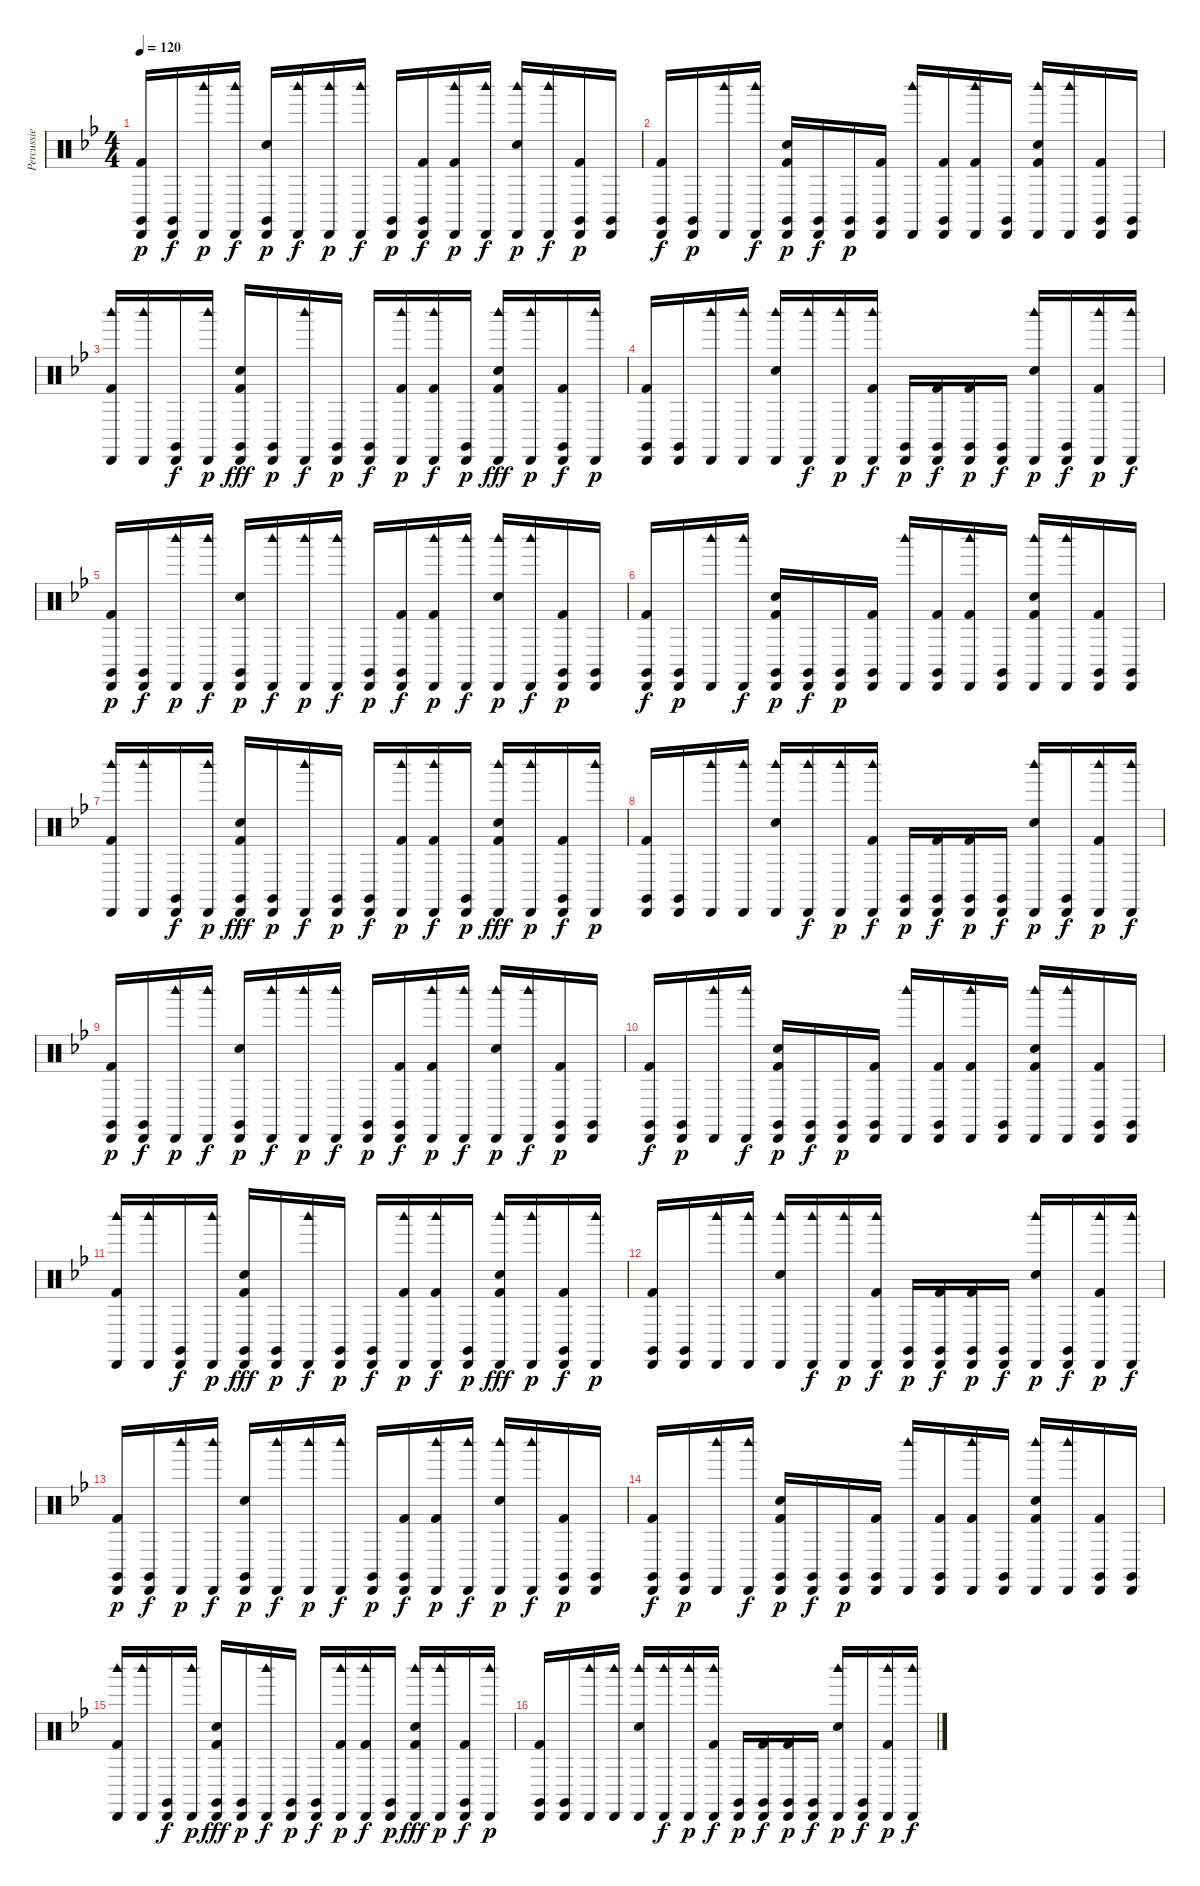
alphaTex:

\track ("Percussie" "Percussie") {instrument percussion}
\staff {score}
\articulation defaults
\ts (4 4)
\tempo 120
\clef neutral
\ks bb
("Cabasa (hit)" "Kick (hit) 2" "Claves (hit)").16{dy p} ("Cabasa (hit)" "Claves (hit)").16{dy f} ("Cabasa (hit)" "Woodblock high (hit)").16{dy p} ("Cabasa (hit)" "Woodblock high (hit)").16{dy f} ("Cabasa (hit)" "Snare (hit) 2" "Claves (hit)").16{dy p} ("Cabasa (hit)" "Woodblock high (hit)").16{dy f} ("Cabasa (hit)" "Woodblock high (hit)").16{dy p} ("Cabasa (hit)" "Woodblock high (hit)").16{dy f} ("Cabasa (hit)" "Claves (hit)").16{dy p} ("Cabasa (hit)" "Kick (hit) 2" "Claves (hit)").16{dy f} ("Cabasa (hit)" "Kick (hit) 2" "Woodblock high (hit)").16{dy p} ("Cabasa (hit)" "Woodblock high (hit)").16{dy f} ("Cabasa (hit)" "Snare (hit) 2" "Woodblock high (hit)").16{dy p} ("Cabasa (hit)" "Woodblock high (hit)").16{dy f} ("Cabasa (hit)" "Kick (hit) 2" "Claves (hit)").16{dy p} ("Cabasa (hit)" "Claves (hit)").16 |
("Cabasa (hit)" "Kick (hit) 2" "Claves (hit)").16{dy f} ("Cabasa (hit)" "Claves (hit)").16{dy p} ("Cabasa (hit)" "Woodblock high (hit)").16 ("Cabasa (hit)" "Woodblock high (hit)").16{dy f} ("Cabasa (hit)" "Kick (hit) 2" "Snare (hit) 2" "Claves (hit)").16{dy p} ("Cabasa (hit)" "Claves (hit)").16{dy f} ("Cabasa (hit)" "Claves (hit)").16{dy p} ("Cabasa (hit)" "Kick (hit) 2" "Claves (hit)").16 ("Cabasa (hit)" "Woodblock high (hit)").16 ("Cabasa (hit)" "Kick (hit) 2" "Claves (hit)").16 ("Cabasa (hit)" "Kick (hit) 2" "Woodblock high (hit)").16 ("Cabasa (hit)" "Claves (hit)").16 ("Cabasa (hit)" "Kick (hit) 2" "Snare (hit) 2" "Woodblock high (hit)").16 ("Cabasa (hit)" "Woodblock high (hit)").16 ("Cabasa (hit)" "Kick (hit) 2" "Claves (hit)").16 ("Cabasa (hit)" "Claves (hit)").16 |
("Cabasa (hit)" "Kick (hit) 2" "Woodblock high (hit)").16 ("Cabasa (hit)" "Woodblock high (hit)").16 ("Cabasa (hit)" "Claves (hit)").16{dy f} ("Cabasa (hit)" "Woodblock high (hit)").16{dy p} ("Cabasa (hit)" "Kick (hit) 2" "Snare (hit) 2" "Claves (hit)").16{dy fff} ("Cabasa (hit)" "Claves (hit)").16{dy p} ("Cabasa (hit)" "Woodblock high (hit)").16{dy f} ("Cabasa (hit)" "Claves (hit)").16{dy p} ("Cabasa (hit)" "Claves (hit)").16{dy f} ("Cabasa (hit)" "Kick (hit) 2" "Woodblock high (hit)").16{dy p} ("Cabasa (hit)" "Kick (hit) 2" "Woodblock high (hit)").16{dy f} ("Cabasa (hit)" "Claves (hit)").16{dy p} ("Cabasa (hit)" "Kick (hit) 2" "Snare (hit) 2" "Woodblock high (hit)").16{dy fff} ("Cabasa (hit)" "Woodblock high (hit)").16{dy p} ("Cabasa (hit)" "Kick (hit) 2" "Claves (hit)").16{dy f} ("Cabasa (hit)" "Woodblock high (hit)").16{dy p} |
("Cabasa (hit)" "Kick (hit) 2" "Claves (hit)").16 ("Cabasa (hit)" "Claves (hit)").16 ("Cabasa (hit)" "Woodblock high (hit)").16 ("Cabasa (hit)" "Woodblock high (hit)").16 ("Cabasa (hit)" "Snare (hit) 2" "Woodblock high (hit)").16 ("Cabasa (hit)" "Woodblock high (hit)").16{dy f} ("Cabasa (hit)" "Woodblock high (hit)").16{dy p} ("Cabasa (hit)" "Kick (hit) 2" "Woodblock high (hit)").16{dy f} ("Cabasa (hit)" "Claves (hit)").16{dy p} ("Cabasa (hit)" "Kick (hit) 2" "Claves (hit)").16{dy f} ("Cabasa (hit)" "Kick (hit) 2" "Claves (hit)").16{dy p} ("Cabasa (hit)" "Claves (hit)").16{dy f} ("Cabasa (hit)" "Snare (hit) 2" "Woodblock high (hit)").16{dy p} ("Cabasa (hit)" "Claves (hit)").16{dy f} ("Cabasa (hit)" "Kick (hit) 2" "Woodblock high (hit)").16{dy p} ("Cabasa (hit)" "Woodblock high (hit)").16{dy f} |
("Cabasa (hit)" "Kick (hit) 2" "Claves (hit)").16{dy p} ("Cabasa (hit)" "Claves (hit)").16{dy f} ("Cabasa (hit)" "Woodblock high (hit)").16{dy p} ("Cabasa (hit)" "Woodblock high (hit)").16{dy f} ("Cabasa (hit)" "Snare (hit) 2" "Claves (hit)").16{dy p} ("Cabasa (hit)" "Woodblock high (hit)").16{dy f} ("Cabasa (hit)" "Woodblock high (hit)").16{dy p} ("Cabasa (hit)" "Woodblock high (hit)").16{dy f} ("Cabasa (hit)" "Claves (hit)").16{dy p} ("Cabasa (hit)" "Kick (hit) 2" "Claves (hit)").16{dy f} ("Cabasa (hit)" "Kick (hit) 2" "Woodblock high (hit)").16{dy p} ("Cabasa (hit)" "Woodblock high (hit)").16{dy f} ("Cabasa (hit)" "Snare (hit) 2" "Woodblock high (hit)").16{dy p} ("Cabasa (hit)" "Woodblock high (hit)").16{dy f} ("Cabasa (hit)" "Kick (hit) 2" "Claves (hit)").16{dy p} ("Cabasa (hit)" "Claves (hit)").16 |
("Cabasa (hit)" "Kick (hit) 2" "Claves (hit)").16{dy f} ("Cabasa (hit)" "Claves (hit)").16{dy p} ("Cabasa (hit)" "Woodblock high (hit)").16 ("Cabasa (hit)" "Woodblock high (hit)").16{dy f} ("Cabasa (hit)" "Kick (hit) 2" "Snare (hit) 2" "Claves (hit)").16{dy p} ("Cabasa (hit)" "Claves (hit)").16{dy f} ("Cabasa (hit)" "Claves (hit)").16{dy p} ("Cabasa (hit)" "Kick (hit) 2" "Claves (hit)").16 ("Cabasa (hit)" "Woodblock high (hit)").16 ("Cabasa (hit)" "Kick (hit) 2" "Claves (hit)").16 ("Cabasa (hit)" "Kick (hit) 2" "Woodblock high (hit)").16 ("Cabasa (hit)" "Claves (hit)").16 ("Cabasa (hit)" "Kick (hit) 2" "Snare (hit) 2" "Woodblock high (hit)").16 ("Cabasa (hit)" "Woodblock high (hit)").16 ("Cabasa (hit)" "Kick (hit) 2" "Claves (hit)").16 ("Cabasa (hit)" "Claves (hit)").16 |
("Cabasa (hit)" "Kick (hit) 2" "Woodblock high (hit)").16 ("Cabasa (hit)" "Woodblock high (hit)").16 ("Cabasa (hit)" "Claves (hit)").16{dy f} ("Cabasa (hit)" "Woodblock high (hit)").16{dy p} ("Cabasa (hit)" "Kick (hit) 2" "Snare (hit) 2" "Claves (hit)").16{dy fff} ("Cabasa (hit)" "Claves (hit)").16{dy p} ("Cabasa (hit)" "Woodblock high (hit)").16{dy f} ("Cabasa (hit)" "Claves (hit)").16{dy p} ("Cabasa (hit)" "Claves (hit)").16{dy f} ("Cabasa (hit)" "Kick (hit) 2" "Woodblock high (hit)").16{dy p} ("Cabasa (hit)" "Kick (hit) 2" "Woodblock high (hit)").16{dy f} ("Cabasa (hit)" "Claves (hit)").16{dy p} ("Cabasa (hit)" "Kick (hit) 2" "Snare (hit) 2" "Woodblock high (hit)").16{dy fff} ("Cabasa (hit)" "Woodblock high (hit)").16{dy p} ("Cabasa (hit)" "Kick (hit) 2" "Claves (hit)").16{dy f} ("Cabasa (hit)" "Woodblock high (hit)").16{dy p} |
("Cabasa (hit)" "Kick (hit) 2" "Claves (hit)").16 ("Cabasa (hit)" "Claves (hit)").16 ("Cabasa (hit)" "Woodblock high (hit)").16 ("Cabasa (hit)" "Woodblock high (hit)").16 ("Cabasa (hit)" "Snare (hit) 2" "Woodblock high (hit)").16 ("Cabasa (hit)" "Woodblock high (hit)").16{dy f} ("Cabasa (hit)" "Woodblock high (hit)").16{dy p} ("Cabasa (hit)" "Kick (hit) 2" "Woodblock high (hit)").16{dy f} ("Cabasa (hit)" "Claves (hit)").16{dy p} ("Cabasa (hit)" "Kick (hit) 2" "Claves (hit)").16{dy f} ("Cabasa (hit)" "Kick (hit) 2" "Claves (hit)").16{dy p} ("Cabasa (hit)" "Claves (hit)").16{dy f} ("Cabasa (hit)" "Snare (hit) 2" "Woodblock high (hit)").16{dy p} ("Cabasa (hit)" "Claves (hit)").16{dy f} ("Cabasa (hit)" "Kick (hit) 2" "Woodblock high (hit)").16{dy p} ("Cabasa (hit)" "Woodblock high (hit)").16{dy f} |
("Cabasa (hit)" "Kick (hit) 2" "Claves (hit)").16{dy p} ("Cabasa (hit)" "Claves (hit)").16{dy f} ("Cabasa (hit)" "Woodblock high (hit)").16{dy p} ("Cabasa (hit)" "Woodblock high (hit)").16{dy f} ("Cabasa (hit)" "Snare (hit) 2" "Claves (hit)").16{dy p} ("Cabasa (hit)" "Woodblock high (hit)").16{dy f} ("Cabasa (hit)" "Woodblock high (hit)").16{dy p} ("Cabasa (hit)" "Woodblock high (hit)").16{dy f} ("Cabasa (hit)" "Claves (hit)").16{dy p} ("Cabasa (hit)" "Kick (hit) 2" "Claves (hit)").16{dy f} ("Cabasa (hit)" "Kick (hit) 2" "Woodblock high (hit)").16{dy p} ("Cabasa (hit)" "Woodblock high (hit)").16{dy f} ("Cabasa (hit)" "Snare (hit) 2" "Woodblock high (hit)").16{dy p} ("Cabasa (hit)" "Woodblock high (hit)").16{dy f} ("Cabasa (hit)" "Kick (hit) 2" "Claves (hit)").16{dy p} ("Cabasa (hit)" "Claves (hit)").16 |
("Cabasa (hit)" "Kick (hit) 2" "Claves (hit)").16{dy f} ("Cabasa (hit)" "Claves (hit)").16{dy p} ("Cabasa (hit)" "Woodblock high (hit)").16 ("Cabasa (hit)" "Woodblock high (hit)").16{dy f} ("Cabasa (hit)" "Kick (hit) 2" "Snare (hit) 2" "Claves (hit)").16{dy p} ("Cabasa (hit)" "Claves (hit)").16{dy f} ("Cabasa (hit)" "Claves (hit)").16{dy p} ("Cabasa (hit)" "Kick (hit) 2" "Claves (hit)").16 ("Cabasa (hit)" "Woodblock high (hit)").16 ("Cabasa (hit)" "Kick (hit) 2" "Claves (hit)").16 ("Cabasa (hit)" "Kick (hit) 2" "Woodblock high (hit)").16 ("Cabasa (hit)" "Claves (hit)").16 ("Cabasa (hit)" "Kick (hit) 2" "Snare (hit) 2" "Woodblock high (hit)").16 ("Cabasa (hit)" "Woodblock high (hit)").16 ("Cabasa (hit)" "Kick (hit) 2" "Claves (hit)").16 ("Cabasa (hit)" "Claves (hit)").16 |
("Cabasa (hit)" "Kick (hit) 2" "Woodblock high (hit)").16 ("Cabasa (hit)" "Woodblock high (hit)").16 ("Cabasa (hit)" "Claves (hit)").16{dy f} ("Cabasa (hit)" "Woodblock high (hit)").16{dy p} ("Cabasa (hit)" "Kick (hit) 2" "Snare (hit) 2" "Claves (hit)").16{dy fff} ("Cabasa (hit)" "Claves (hit)").16{dy p} ("Cabasa (hit)" "Woodblock high (hit)").16{dy f} ("Cabasa (hit)" "Claves (hit)").16{dy p} ("Cabasa (hit)" "Claves (hit)").16{dy f} ("Cabasa (hit)" "Kick (hit) 2" "Woodblock high (hit)").16{dy p} ("Cabasa (hit)" "Kick (hit) 2" "Woodblock high (hit)").16{dy f} ("Cabasa (hit)" "Claves (hit)").16{dy p} ("Cabasa (hit)" "Kick (hit) 2" "Snare (hit) 2" "Woodblock high (hit)").16{dy fff} ("Cabasa (hit)" "Woodblock high (hit)").16{dy p} ("Cabasa (hit)" "Kick (hit) 2" "Claves (hit)").16{dy f} ("Cabasa (hit)" "Woodblock high (hit)").16{dy p} |
("Cabasa (hit)" "Kick (hit) 2" "Claves (hit)").16 ("Cabasa (hit)" "Claves (hit)").16 ("Cabasa (hit)" "Woodblock high (hit)").16 ("Cabasa (hit)" "Woodblock high (hit)").16 ("Cabasa (hit)" "Snare (hit) 2" "Woodblock high (hit)").16 ("Cabasa (hit)" "Woodblock high (hit)").16{dy f} ("Cabasa (hit)" "Woodblock high (hit)").16{dy p} ("Cabasa (hit)" "Kick (hit) 2" "Woodblock high (hit)").16{dy f} ("Cabasa (hit)" "Claves (hit)").16{dy p} ("Cabasa (hit)" "Kick (hit) 2" "Claves (hit)").16{dy f} ("Cabasa (hit)" "Kick (hit) 2" "Claves (hit)").16{dy p} ("Cabasa (hit)" "Claves (hit)").16{dy f} ("Cabasa (hit)" "Snare (hit) 2" "Woodblock high (hit)").16{dy p} ("Cabasa (hit)" "Claves (hit)").16{dy f} ("Cabasa (hit)" "Kick (hit) 2" "Woodblock high (hit)").16{dy p} ("Cabasa (hit)" "Woodblock high (hit)").16{dy f} |
("Cabasa (hit)" "Kick (hit) 2" "Claves (hit)").16{dy p} ("Cabasa (hit)" "Claves (hit)").16{dy f} ("Cabasa (hit)" "Woodblock high (hit)").16{dy p} ("Cabasa (hit)" "Woodblock high (hit)").16{dy f} ("Cabasa (hit)" "Snare (hit) 2" "Claves (hit)").16{dy p} ("Cabasa (hit)" "Woodblock high (hit)").16{dy f} ("Cabasa (hit)" "Woodblock high (hit)").16{dy p} ("Cabasa (hit)" "Woodblock high (hit)").16{dy f} ("Cabasa (hit)" "Claves (hit)").16{dy p} ("Cabasa (hit)" "Kick (hit) 2" "Claves (hit)").16{dy f} ("Cabasa (hit)" "Kick (hit) 2" "Woodblock high (hit)").16{dy p} ("Cabasa (hit)" "Woodblock high (hit)").16{dy f} ("Cabasa (hit)" "Snare (hit) 2" "Woodblock high (hit)").16{dy p} ("Cabasa (hit)" "Woodblock high (hit)").16{dy f} ("Cabasa (hit)" "Kick (hit) 2" "Claves (hit)").16{dy p} ("Cabasa (hit)" "Claves (hit)").16 |
("Cabasa (hit)" "Kick (hit) 2" "Claves (hit)").16{dy f} ("Cabasa (hit)" "Claves (hit)").16{dy p} ("Cabasa (hit)" "Woodblock high (hit)").16 ("Cabasa (hit)" "Woodblock high (hit)").16{dy f} ("Cabasa (hit)" "Kick (hit) 2" "Snare (hit) 2" "Claves (hit)").16{dy p} ("Cabasa (hit)" "Claves (hit)").16{dy f} ("Cabasa (hit)" "Claves (hit)").16{dy p} ("Cabasa (hit)" "Kick (hit) 2" "Claves (hit)").16 ("Cabasa (hit)" "Woodblock high (hit)").16 ("Cabasa (hit)" "Kick (hit) 2" "Claves (hit)").16 ("Cabasa (hit)" "Kick (hit) 2" "Woodblock high (hit)").16 ("Cabasa (hit)" "Claves (hit)").16 ("Cabasa (hit)" "Kick (hit) 2" "Snare (hit) 2" "Woodblock high (hit)").16 ("Cabasa (hit)" "Woodblock high (hit)").16 ("Cabasa (hit)" "Kick (hit) 2" "Claves (hit)").16 ("Cabasa (hit)" "Claves (hit)").16 |
("Cabasa (hit)" "Kick (hit) 2" "Woodblock high (hit)").16 ("Cabasa (hit)" "Woodblock high (hit)").16 ("Cabasa (hit)" "Claves (hit)").16{dy f} ("Cabasa (hit)" "Woodblock high (hit)").16{dy p} ("Cabasa (hit)" "Kick (hit) 2" "Snare (hit) 2" "Claves (hit)").16{dy fff} ("Cabasa (hit)" "Claves (hit)").16{dy p} ("Cabasa (hit)" "Woodblock high (hit)").16{dy f} ("Cabasa (hit)" "Claves (hit)").16{dy p} ("Cabasa (hit)" "Claves (hit)").16{dy f} ("Cabasa (hit)" "Kick (hit) 2" "Woodblock high (hit)").16{dy p} ("Cabasa (hit)" "Kick (hit) 2" "Woodblock high (hit)").16{dy f} ("Cabasa (hit)" "Claves (hit)").16{dy p} ("Cabasa (hit)" "Kick (hit) 2" "Snare (hit) 2" "Woodblock high (hit)").16{dy fff} ("Cabasa (hit)" "Woodblock high (hit)").16{dy p} ("Cabasa (hit)" "Kick (hit) 2" "Claves (hit)").16{dy f} ("Cabasa (hit)" "Woodblock high (hit)").16{dy p} |
("Cabasa (hit)" "Kick (hit) 2" "Claves (hit)").16 ("Cabasa (hit)" "Claves (hit)").16 ("Cabasa (hit)" "Woodblock high (hit)").16 ("Cabasa (hit)" "Woodblock high (hit)").16 ("Cabasa (hit)" "Snare (hit) 2" "Woodblock high (hit)").16 ("Cabasa (hit)" "Woodblock high (hit)").16{dy f} ("Cabasa (hit)" "Woodblock high (hit)").16{dy p} ("Cabasa (hit)" "Kick (hit) 2" "Woodblock high (hit)").16{dy f} ("Cabasa (hit)" "Claves (hit)").16{dy p} ("Cabasa (hit)" "Kick (hit) 2" "Claves (hit)").16{dy f} ("Cabasa (hit)" "Kick (hit) 2" "Claves (hit)").16{dy p} ("Cabasa (hit)" "Claves (hit)").16{dy f} ("Cabasa (hit)" "Snare (hit) 2" "Woodblock high (hit)").16{dy p} ("Cabasa (hit)" "Claves (hit)").16{dy f} ("Cabasa (hit)" "Kick (hit) 2" "Woodblock high (hit)").16{dy p} ("Cabasa (hit)" "Woodblock high (hit)").16{dy f}
